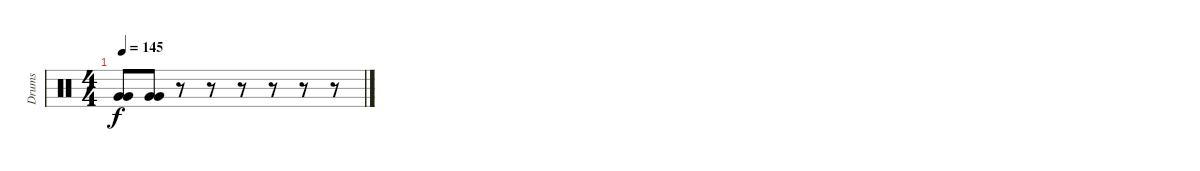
\track ("Drums" "Drums") {instrument percussion}
\staff {score}
\articulation defaults
\ts (4 4)
\tempo 145
\clef neutral
\ks c
("Very Low Tom (hit)" "Very Low Tom (hit)").8{dy f} ("Very Low Tom (hit)" "Very Low Tom (hit)").8 r.8 r.8 r.8 r.8 r.8 r.8
